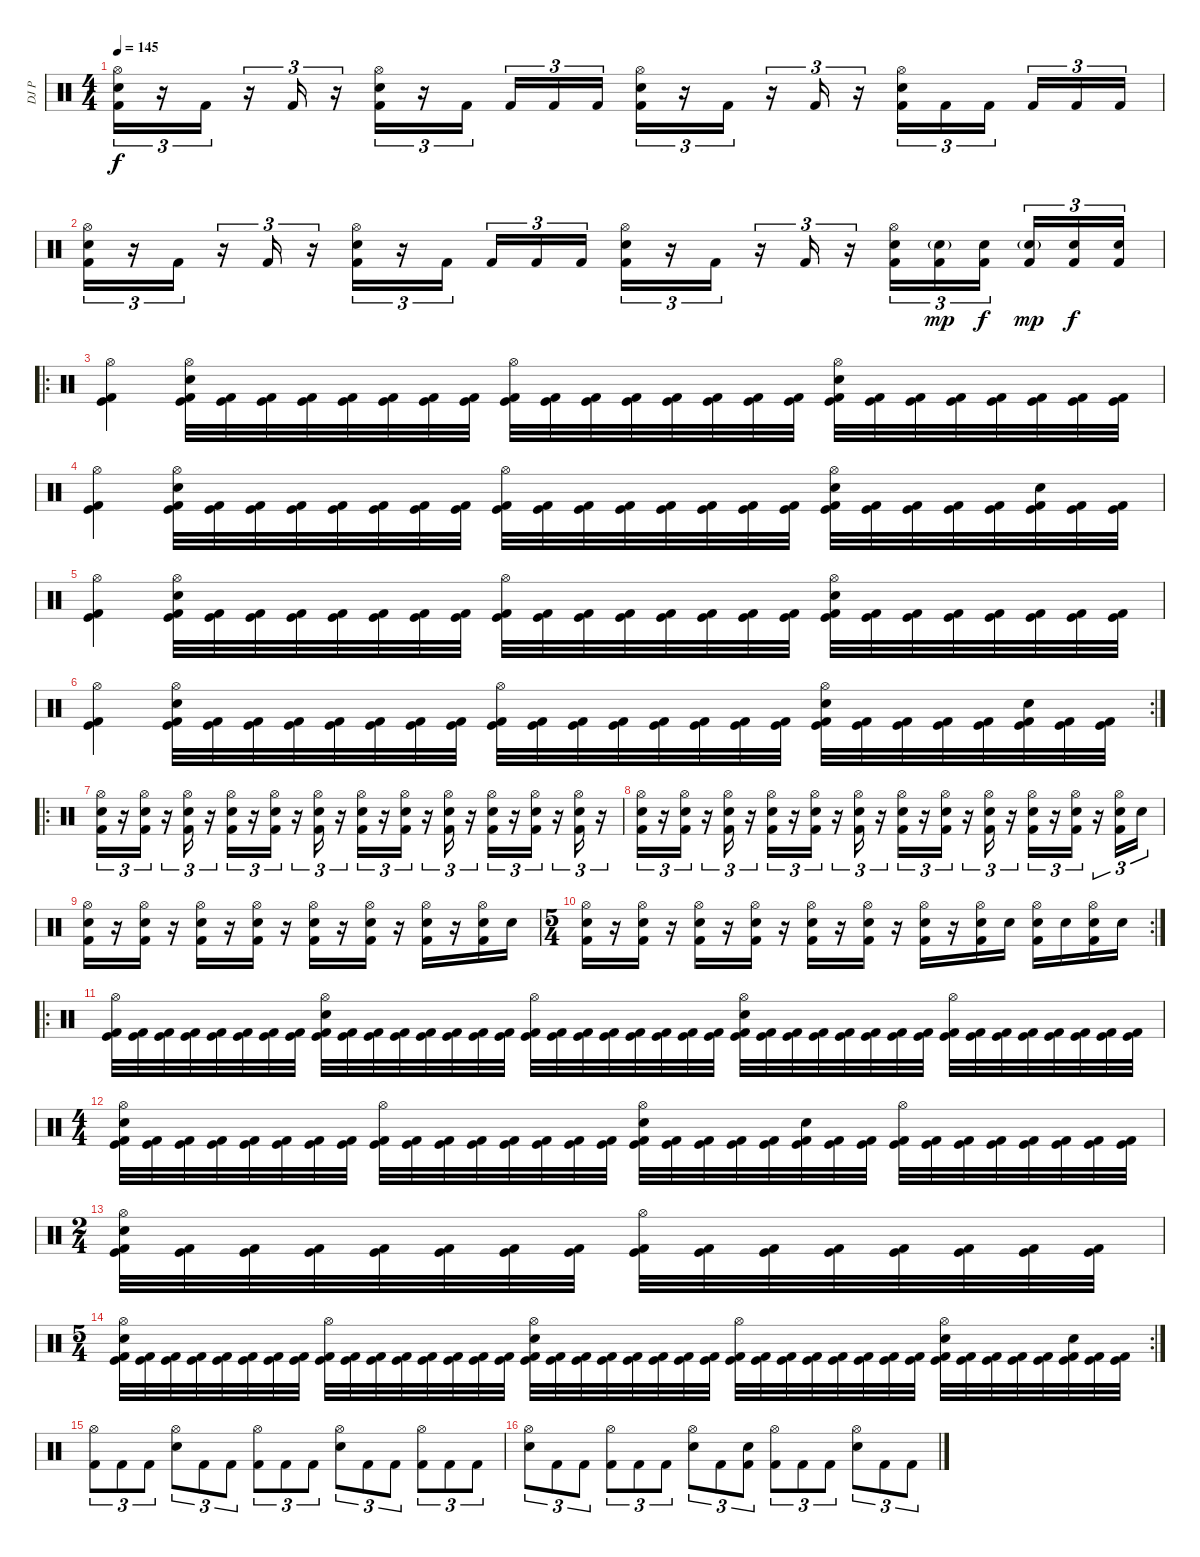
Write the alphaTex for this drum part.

\track ("DJ P" "DJ P") {instrument percussion}
\staff {score}
\articulation defaults
\ts (4 4)
\tempo 145
\clef neutral
\ks c
("Hi-Hat (open)" "Electric Snare (hit)" "Kick (hit) 2").16{tu (3 2) dy f} r.16{tu (3 2)} "Kick (hit) 2".16{tu (3 2)} r.16{tu (3 2)} "Kick (hit) 2".16{tu (3 2)} r.16{tu (3 2)} ("Hi-Hat (open)" "Electric Snare (hit)" "Kick (hit) 2").16{tu (3 2)} r.16{tu (3 2)} "Kick (hit) 2".16{tu (3 2) beam splitsecondary} "Kick (hit) 2".16{tu (3 2)} "Kick (hit) 2".16{tu (3 2)} "Kick (hit) 2".16{tu (3 2)} ("Hi-Hat (open)" "Electric Snare (hit)" "Kick (hit) 2").16{tu (3 2)} r.16{tu (3 2)} "Kick (hit) 2".16{tu (3 2)} r.16{tu (3 2)} "Kick (hit) 2".16{tu (3 2)} r.16{tu (3 2)} ("Hi-Hat (open)" "Electric Snare (hit)" "Kick (hit) 2").16{tu (3 2)} "Kick (hit) 2".16{tu (3 2)} "Kick (hit) 2".16{tu (3 2) beam splitsecondary} "Kick (hit) 2".16{tu (3 2)} "Kick (hit) 2".16{tu (3 2)} "Kick (hit) 2".16{tu (3 2)} |
("Hi-Hat (open)" "Electric Snare (hit)" "Kick (hit) 2").16{tu (3 2)} r.16{tu (3 2)} "Kick (hit) 2".16{tu (3 2)} r.16{tu (3 2)} "Kick (hit) 2".16{tu (3 2)} r.16{tu (3 2)} ("Hi-Hat (open)" "Electric Snare (hit)" "Kick (hit) 2").16{tu (3 2)} r.16{tu (3 2)} "Kick (hit) 2".16{tu (3 2) beam splitsecondary} "Kick (hit) 2".16{tu (3 2)} "Kick (hit) 2".16{tu (3 2)} "Kick (hit) 2".16{tu (3 2)} ("Hi-Hat (open)" "Electric Snare (hit)" "Kick (hit) 2").16{tu (3 2)} r.16{tu (3 2)} "Kick (hit) 2".16{tu (3 2)} r.16{tu (3 2)} "Kick (hit) 2".16{tu (3 2)} r.16{tu (3 2)} ("Hi-Hat (open)" "Electric Snare (hit)" "Kick (hit) 2").16{tu (3 2)} ("Electric Snare (hit)"{g} "Kick (hit) 2").16{tu (3 2) dy mp} ("Electric Snare (hit)" "Kick (hit) 2").16{tu (3 2) dy f beam splitsecondary} ("Electric Snare (hit)"{g} "Kick (hit) 2").16{tu (3 2) dy mp} ("Electric Snare (hit)" "Kick (hit) 2").16{tu (3 2) dy f} ("Electric Snare (hit)" "Kick (hit) 2").16{tu (3 2)} |
\ro
("Hi-Hat (open)" "Kick (hit)" "Kick (hit) 2").4 ("Hi-Hat (open)" "Electric Snare (hit)" "Kick (hit)" "Kick (hit) 2").32 ("Kick (hit)" "Kick (hit) 2").32 ("Kick (hit)" "Kick (hit) 2").32 ("Kick (hit)" "Kick (hit) 2").32 ("Kick (hit)" "Kick (hit) 2").32 ("Kick (hit)" "Kick (hit) 2").32 ("Kick (hit)" "Kick (hit) 2").32 ("Kick (hit)" "Kick (hit) 2").32 ("Hi-Hat (open)" "Kick (hit)" "Kick (hit) 2").32 ("Kick (hit)" "Kick (hit) 2").32 ("Kick (hit)" "Kick (hit) 2").32 ("Kick (hit)" "Kick (hit) 2").32 ("Kick (hit)" "Kick (hit) 2").32 ("Kick (hit)" "Kick (hit) 2").32 ("Kick (hit)" "Kick (hit) 2").32 ("Kick (hit)" "Kick (hit) 2").32 ("Hi-Hat (open)" "Electric Snare (hit)" "Kick (hit)" "Kick (hit) 2").32 ("Kick (hit)" "Kick (hit) 2").32 ("Kick (hit)" "Kick (hit) 2").32 ("Kick (hit)" "Kick (hit) 2").32 ("Kick (hit)" "Kick (hit) 2").32 ("Kick (hit)" "Kick (hit) 2").32 ("Kick (hit)" "Kick (hit) 2").32 ("Kick (hit)" "Kick (hit) 2").32 |
("Hi-Hat (open)" "Kick (hit)" "Kick (hit) 2").4 ("Hi-Hat (open)" "Electric Snare (hit)" "Kick (hit)" "Kick (hit) 2").32 ("Kick (hit)" "Kick (hit) 2").32 ("Kick (hit)" "Kick (hit) 2").32 ("Kick (hit)" "Kick (hit) 2").32 ("Kick (hit)" "Kick (hit) 2").32 ("Kick (hit)" "Kick (hit) 2").32 ("Kick (hit)" "Kick (hit) 2").32 ("Kick (hit)" "Kick (hit) 2").32 ("Hi-Hat (open)" "Kick (hit)" "Kick (hit) 2").32 ("Kick (hit)" "Kick (hit) 2").32 ("Kick (hit)" "Kick (hit) 2").32 ("Kick (hit)" "Kick (hit) 2").32 ("Kick (hit)" "Kick (hit) 2").32 ("Kick (hit)" "Kick (hit) 2").32 ("Kick (hit)" "Kick (hit) 2").32 ("Kick (hit)" "Kick (hit) 2").32 ("Hi-Hat (open)" "Electric Snare (hit)" "Kick (hit)" "Kick (hit) 2").32 ("Kick (hit)" "Kick (hit) 2").32 ("Kick (hit)" "Kick (hit) 2").32 ("Kick (hit)" "Kick (hit) 2").32 ("Kick (hit)" "Kick (hit) 2").32 ("Electric Snare (hit)" "Kick (hit)" "Kick (hit) 2").32 ("Kick (hit)" "Kick (hit) 2").32 ("Kick (hit)" "Kick (hit) 2").32 |
("Hi-Hat (open)" "Kick (hit)" "Kick (hit) 2").4 ("Hi-Hat (open)" "Electric Snare (hit)" "Kick (hit)" "Kick (hit) 2").32 ("Kick (hit)" "Kick (hit) 2").32 ("Kick (hit)" "Kick (hit) 2").32 ("Kick (hit)" "Kick (hit) 2").32 ("Kick (hit)" "Kick (hit) 2").32 ("Kick (hit)" "Kick (hit) 2").32 ("Kick (hit)" "Kick (hit) 2").32 ("Kick (hit)" "Kick (hit) 2").32 ("Hi-Hat (open)" "Kick (hit)" "Kick (hit) 2").32 ("Kick (hit)" "Kick (hit) 2").32 ("Kick (hit)" "Kick (hit) 2").32 ("Kick (hit)" "Kick (hit) 2").32 ("Kick (hit)" "Kick (hit) 2").32 ("Kick (hit)" "Kick (hit) 2").32 ("Kick (hit)" "Kick (hit) 2").32 ("Kick (hit)" "Kick (hit) 2").32 ("Hi-Hat (open)" "Electric Snare (hit)" "Kick (hit)" "Kick (hit) 2").32 ("Kick (hit)" "Kick (hit) 2").32 ("Kick (hit)" "Kick (hit) 2").32 ("Kick (hit)" "Kick (hit) 2").32 ("Kick (hit)" "Kick (hit) 2").32 ("Kick (hit)" "Kick (hit) 2").32 ("Kick (hit)" "Kick (hit) 2").32 ("Kick (hit)" "Kick (hit) 2").32 |
\rc 2
("Hi-Hat (open)" "Kick (hit)" "Kick (hit) 2").4 ("Hi-Hat (open)" "Electric Snare (hit)" "Kick (hit)" "Kick (hit) 2").32 ("Kick (hit)" "Kick (hit) 2").32 ("Kick (hit)" "Kick (hit) 2").32 ("Kick (hit)" "Kick (hit) 2").32 ("Kick (hit)" "Kick (hit) 2").32 ("Kick (hit)" "Kick (hit) 2").32 ("Kick (hit)" "Kick (hit) 2").32 ("Kick (hit)" "Kick (hit) 2").32 ("Hi-Hat (open)" "Kick (hit)" "Kick (hit) 2").32 ("Kick (hit)" "Kick (hit) 2").32 ("Kick (hit)" "Kick (hit) 2").32 ("Kick (hit)" "Kick (hit) 2").32 ("Kick (hit)" "Kick (hit) 2").32 ("Kick (hit)" "Kick (hit) 2").32 ("Kick (hit)" "Kick (hit) 2").32 ("Kick (hit)" "Kick (hit) 2").32 ("Hi-Hat (open)" "Electric Snare (hit)" "Kick (hit)" "Kick (hit) 2").32 ("Kick (hit)" "Kick (hit) 2").32 ("Kick (hit)" "Kick (hit) 2").32 ("Kick (hit)" "Kick (hit) 2").32 ("Kick (hit)" "Kick (hit) 2").32 ("Electric Snare (hit)" "Kick (hit)" "Kick (hit) 2").32 ("Kick (hit)" "Kick (hit) 2").32 ("Kick (hit)" "Kick (hit) 2").32 |
\ro
("Hi-Hat (open)" "Electric Snare (hit)" "Kick (hit) 2").16{tu (3 2)} r.16{tu (3 2)} ("Hi-Hat (open)" "Electric Snare (hit)" "Kick (hit) 2").16{tu (3 2)} r.16{tu (3 2)} ("Hi-Hat (open)" "Electric Snare (hit)" "Kick (hit) 2").16{tu (3 2)} r.16{tu (3 2)} ("Hi-Hat (open)" "Electric Snare (hit)" "Kick (hit) 2").16{tu (3 2)} r.16{tu (3 2)} ("Hi-Hat (open)" "Electric Snare (hit)" "Kick (hit) 2").16{tu (3 2)} r.16{tu (3 2)} ("Hi-Hat (open)" "Electric Snare (hit)" "Kick (hit) 2").16{tu (3 2)} r.16{tu (3 2)} ("Hi-Hat (open)" "Electric Snare (hit)" "Kick (hit) 2").16{tu (3 2)} r.16{tu (3 2)} ("Hi-Hat (open)" "Electric Snare (hit)" "Kick (hit) 2").16{tu (3 2)} r.16{tu (3 2)} ("Hi-Hat (open)" "Electric Snare (hit)" "Kick (hit) 2").16{tu (3 2)} r.16{tu (3 2)} ("Hi-Hat (open)" "Electric Snare (hit)" "Kick (hit) 2").16{tu (3 2)} r.16{tu (3 2)} ("Hi-Hat (open)" "Electric Snare (hit)" "Kick (hit) 2").16{tu (3 2)} r.16{tu (3 2)} ("Hi-Hat (open)" "Electric Snare (hit)" "Kick (hit) 2").16{tu (3 2)} r.16{tu (3 2)} |
("Hi-Hat (open)" "Electric Snare (hit)" "Kick (hit) 2").16{tu (3 2)} r.16{tu (3 2)} ("Hi-Hat (open)" "Electric Snare (hit)" "Kick (hit) 2").16{tu (3 2)} r.16{tu (3 2)} ("Hi-Hat (open)" "Electric Snare (hit)" "Kick (hit) 2").16{tu (3 2)} r.16{tu (3 2)} ("Hi-Hat (open)" "Electric Snare (hit)" "Kick (hit) 2").16{tu (3 2)} r.16{tu (3 2)} ("Hi-Hat (open)" "Electric Snare (hit)" "Kick (hit) 2").16{tu (3 2)} r.16{tu (3 2)} ("Hi-Hat (open)" "Electric Snare (hit)" "Kick (hit) 2").16{tu (3 2)} r.16{tu (3 2)} ("Hi-Hat (open)" "Electric Snare (hit)" "Kick (hit) 2").16{tu (3 2)} r.16{tu (3 2)} ("Hi-Hat (open)" "Electric Snare (hit)" "Kick (hit) 2").16{tu (3 2)} r.16{tu (3 2)} ("Hi-Hat (open)" "Electric Snare (hit)" "Kick (hit) 2").16{tu (3 2)} r.16{tu (3 2)} ("Hi-Hat (open)" "Electric Snare (hit)" "Kick (hit) 2").16{tu (3 2)} r.16{tu (3 2)} ("Hi-Hat (open)" "Electric Snare (hit)" "Kick (hit) 2").16{tu (3 2)} r.16{tu (3 2)} ("Hi-Hat (open)" "Electric Snare (hit)" "Kick (hit) 2").16{tu (3 2)} "Electric Snare (hit)".16{tu (3 2)} |
("Hi-Hat (open)" "Electric Snare (hit)" "Kick (hit) 2").16 r.16 ("Hi-Hat (open)" "Electric Snare (hit)" "Kick (hit) 2").16 r.16 ("Hi-Hat (open)" "Electric Snare (hit)" "Kick (hit) 2").16 r.16 ("Hi-Hat (open)" "Electric Snare (hit)" "Kick (hit) 2").16 r.16 ("Hi-Hat (open)" "Electric Snare (hit)" "Kick (hit) 2").16 r.16 ("Hi-Hat (open)" "Electric Snare (hit)" "Kick (hit) 2").16 r.16 ("Hi-Hat (open)" "Electric Snare (hit)" "Kick (hit) 2").16 r.16 ("Hi-Hat (open)" "Electric Snare (hit)" "Kick (hit) 2").16 "Electric Snare (hit)".16 |
\rc 2
\ts (5 4)
("Hi-Hat (open)" "Electric Snare (hit)" "Kick (hit) 2").16 r.16 ("Hi-Hat (open)" "Electric Snare (hit)" "Kick (hit) 2").16 r.16 ("Hi-Hat (open)" "Electric Snare (hit)" "Kick (hit) 2").16 r.16 ("Hi-Hat (open)" "Electric Snare (hit)" "Kick (hit) 2").16 r.16 ("Hi-Hat (open)" "Electric Snare (hit)" "Kick (hit) 2").16 r.16 ("Hi-Hat (open)" "Electric Snare (hit)" "Kick (hit) 2").16 r.16 ("Hi-Hat (open)" "Electric Snare (hit)" "Kick (hit) 2").16 r.16 ("Hi-Hat (open)" "Electric Snare (hit)" "Kick (hit) 2").16 "Electric Snare (hit)".16 ("Hi-Hat (open)" "Electric Snare (hit)" "Kick (hit) 2").16 "Electric Snare (hit)".16 ("Hi-Hat (open)" "Electric Snare (hit)" "Kick (hit) 2").16 "Electric Snare (hit)".16 |
\ro
("Hi-Hat (open)" "Kick (hit)" "Kick (hit) 2").32 ("Kick (hit)" "Kick (hit) 2").32 ("Kick (hit)" "Kick (hit) 2").32 ("Kick (hit)" "Kick (hit) 2").32 ("Kick (hit)" "Kick (hit) 2").32 ("Kick (hit)" "Kick (hit) 2").32 ("Kick (hit)" "Kick (hit) 2").32 ("Kick (hit)" "Kick (hit) 2").32 ("Hi-Hat (open)" "Electric Snare (hit)" "Kick (hit)" "Kick (hit) 2").32 ("Kick (hit)" "Kick (hit) 2").32 ("Kick (hit)" "Kick (hit) 2").32 ("Kick (hit)" "Kick (hit) 2").32 ("Kick (hit)" "Kick (hit) 2").32 ("Kick (hit)" "Kick (hit) 2").32 ("Kick (hit)" "Kick (hit) 2").32 ("Kick (hit)" "Kick (hit) 2").32 ("Hi-Hat (open)" "Kick (hit)" "Kick (hit) 2").32 ("Kick (hit)" "Kick (hit) 2").32 ("Kick (hit)" "Kick (hit) 2").32 ("Kick (hit)" "Kick (hit) 2").32 ("Kick (hit)" "Kick (hit) 2").32 ("Kick (hit)" "Kick (hit) 2").32 ("Kick (hit)" "Kick (hit) 2").32 ("Kick (hit)" "Kick (hit) 2").32 ("Hi-Hat (open)" "Electric Snare (hit)" "Kick (hit)" "Kick (hit) 2").32 ("Kick (hit)" "Kick (hit) 2").32 ("Kick (hit)" "Kick (hit) 2").32 ("Kick (hit)" "Kick (hit) 2").32 ("Kick (hit)" "Kick (hit) 2").32 ("Kick (hit)" "Kick (hit) 2").32 ("Kick (hit)" "Kick (hit) 2").32 ("Kick (hit)" "Kick (hit) 2").32 ("Hi-Hat (open)" "Kick (hit)" "Kick (hit) 2").32 ("Kick (hit)" "Kick (hit) 2").32 ("Kick (hit)" "Kick (hit) 2").32 ("Kick (hit)" "Kick (hit) 2").32 ("Kick (hit)" "Kick (hit) 2").32 ("Kick (hit)" "Kick (hit) 2").32 ("Kick (hit)" "Kick (hit) 2").32 ("Kick (hit)" "Kick (hit) 2").32 |
\ts (4 4)
("Hi-Hat (open)" "Electric Snare (hit)" "Kick (hit)" "Kick (hit) 2").32 ("Kick (hit)" "Kick (hit) 2").32 ("Kick (hit)" "Kick (hit) 2").32 ("Kick (hit)" "Kick (hit) 2").32 ("Kick (hit)" "Kick (hit) 2").32 ("Kick (hit)" "Kick (hit) 2").32 ("Kick (hit)" "Kick (hit) 2").32 ("Kick (hit)" "Kick (hit) 2").32 ("Hi-Hat (open)" "Kick (hit)" "Kick (hit) 2").32 ("Kick (hit)" "Kick (hit) 2").32 ("Kick (hit)" "Kick (hit) 2").32 ("Kick (hit)" "Kick (hit) 2").32 ("Kick (hit)" "Kick (hit) 2").32 ("Kick (hit)" "Kick (hit) 2").32 ("Kick (hit)" "Kick (hit) 2").32 ("Kick (hit)" "Kick (hit) 2").32 ("Hi-Hat (open)" "Electric Snare (hit)" "Kick (hit)" "Kick (hit) 2").32 ("Kick (hit)" "Kick (hit) 2").32 ("Kick (hit)" "Kick (hit) 2").32 ("Kick (hit)" "Kick (hit) 2").32 ("Kick (hit)" "Kick (hit) 2").32 ("Electric Snare (hit)" "Kick (hit)" "Kick (hit) 2").32 ("Kick (hit)" "Kick (hit) 2").32 ("Kick (hit)" "Kick (hit) 2").32 ("Hi-Hat (open)" "Kick (hit)" "Kick (hit) 2").32 ("Kick (hit)" "Kick (hit) 2").32 ("Kick (hit)" "Kick (hit) 2").32 ("Kick (hit)" "Kick (hit) 2").32 ("Kick (hit)" "Kick (hit) 2").32 ("Kick (hit)" "Kick (hit) 2").32 ("Kick (hit)" "Kick (hit) 2").32 ("Kick (hit)" "Kick (hit) 2").32 |
\ts (2 4)
("Hi-Hat (open)" "Electric Snare (hit)" "Kick (hit)" "Kick (hit) 2").32 ("Kick (hit)" "Kick (hit) 2").32 ("Kick (hit)" "Kick (hit) 2").32 ("Kick (hit)" "Kick (hit) 2").32 ("Kick (hit)" "Kick (hit) 2").32 ("Kick (hit)" "Kick (hit) 2").32 ("Kick (hit)" "Kick (hit) 2").32 ("Kick (hit)" "Kick (hit) 2").32 ("Hi-Hat (open)" "Kick (hit)" "Kick (hit) 2").32 ("Kick (hit)" "Kick (hit) 2").32 ("Kick (hit)" "Kick (hit) 2").32 ("Kick (hit)" "Kick (hit) 2").32 ("Kick (hit)" "Kick (hit) 2").32 ("Kick (hit)" "Kick (hit) 2").32 ("Kick (hit)" "Kick (hit) 2").32 ("Kick (hit)" "Kick (hit) 2").32 |
\rc 2
\ts (5 4)
("Hi-Hat (open)" "Electric Snare (hit)" "Kick (hit)" "Kick (hit) 2").32 ("Kick (hit)" "Kick (hit) 2").32 ("Kick (hit)" "Kick (hit) 2").32 ("Kick (hit)" "Kick (hit) 2").32 ("Kick (hit)" "Kick (hit) 2").32 ("Kick (hit)" "Kick (hit) 2").32 ("Kick (hit)" "Kick (hit) 2").32 ("Kick (hit)" "Kick (hit) 2").32 ("Hi-Hat (open)" "Kick (hit)" "Kick (hit) 2").32 ("Kick (hit)" "Kick (hit) 2").32 ("Kick (hit)" "Kick (hit) 2").32 ("Kick (hit)" "Kick (hit) 2").32 ("Kick (hit)" "Kick (hit) 2").32 ("Kick (hit)" "Kick (hit) 2").32 ("Kick (hit)" "Kick (hit) 2").32 ("Kick (hit)" "Kick (hit) 2").32 ("Hi-Hat (open)" "Electric Snare (hit)" "Kick (hit)" "Kick (hit) 2").32 ("Kick (hit)" "Kick (hit) 2").32 ("Kick (hit)" "Kick (hit) 2").32 ("Kick (hit)" "Kick (hit) 2").32 ("Kick (hit)" "Kick (hit) 2").32 ("Kick (hit)" "Kick (hit) 2").32 ("Kick (hit)" "Kick (hit) 2").32 ("Kick (hit)" "Kick (hit) 2").32 ("Hi-Hat (open)" "Kick (hit)" "Kick (hit) 2").32 ("Kick (hit)" "Kick (hit) 2").32 ("Kick (hit)" "Kick (hit) 2").32 ("Kick (hit)" "Kick (hit) 2").32 ("Kick (hit)" "Kick (hit) 2").32 ("Kick (hit)" "Kick (hit) 2").32 ("Kick (hit)" "Kick (hit) 2").32 ("Kick (hit)" "Kick (hit) 2").32 ("Hi-Hat (open)" "Electric Snare (hit)" "Kick (hit)" "Kick (hit) 2").32 ("Kick (hit)" "Kick (hit) 2").32 ("Kick (hit)" "Kick (hit) 2").32 ("Kick (hit)" "Kick (hit) 2").32 ("Kick (hit)" "Kick (hit) 2").32 ("Electric Snare (hit)" "Kick (hit)" "Kick (hit) 2").32 ("Kick (hit)" "Kick (hit) 2").32 ("Kick (hit)" "Kick (hit) 2").32 |
("Hi-Hat (open)" "Kick (hit) 2").8{tu (3 2)} "Kick (hit) 2".8{tu (3 2)} "Kick (hit) 2".8{tu (3 2)} ("Hi-Hat (open)" "Electric Snare (hit)").8{tu (3 2)} "Kick (hit) 2".8{tu (3 2)} "Kick (hit) 2".8{tu (3 2)} ("Hi-Hat (open)" "Kick (hit) 2").8{tu (3 2)} "Kick (hit) 2".8{tu (3 2)} "Kick (hit) 2".8{tu (3 2)} ("Hi-Hat (open)" "Electric Snare (hit)").8{tu (3 2)} "Kick (hit) 2".8{tu (3 2)} "Kick (hit) 2".8{tu (3 2)} ("Hi-Hat (open)" "Kick (hit) 2").8{tu (3 2)} "Kick (hit) 2".8{tu (3 2)} "Kick (hit) 2".8{tu (3 2)} |
("Hi-Hat (open)" "Electric Snare (hit)").8{tu (3 2)} "Kick (hit) 2".8{tu (3 2)} "Kick (hit) 2".8{tu (3 2)} ("Hi-Hat (open)" "Kick (hit) 2").8{tu (3 2)} "Kick (hit) 2".8{tu (3 2)} "Kick (hit) 2".8{tu (3 2)} ("Hi-Hat (open)" "Electric Snare (hit)").8{tu (3 2)} "Kick (hit) 2".8{tu (3 2)} ("Electric Snare (hit)" "Kick (hit) 2").8{tu (3 2)} ("Hi-Hat (open)" "Kick (hit) 2").8{tu (3 2)} "Kick (hit) 2".8{tu (3 2)} "Kick (hit) 2".8{tu (3 2)} ("Hi-Hat (open)" "Electric Snare (hit)").8{tu (3 2)} "Kick (hit) 2".8{tu (3 2)} "Kick (hit) 2".8{tu (3 2)}
